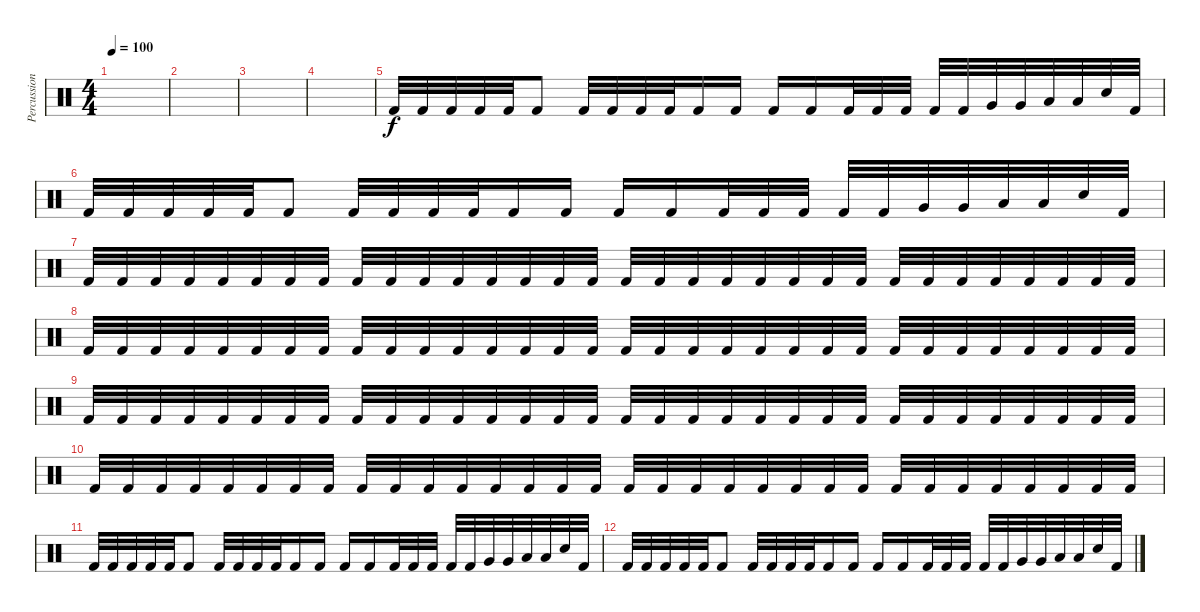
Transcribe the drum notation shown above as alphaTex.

\track ("Percussions" "Percussion") {instrument percussion}
\staff {score}
\articulation defaults
\ts (4 4)
\tempo 100
\clef neutral
\ks c
|
|
|
|
"Kick (hit) 2".32 "Kick (hit) 2".32 "Kick (hit) 2".32 "Kick (hit) 2".32 "Kick (hit) 2".32 "Kick (hit) 2".8 "Kick (hit) 2".32 "Kick (hit) 2".32 "Kick (hit) 2".32 "Kick (hit) 2".32 "Kick (hit) 2".16 "Kick (hit) 2".16 "Kick (hit) 2".16 "Kick (hit) 2".16 "Kick (hit) 2".32 "Kick (hit) 2".32 "Kick (hit) 2".32 "Kick (hit) 2".32 "Kick (hit) 2".32 "Very Low Tom (hit)".32 "Very Low Tom (hit)".32 "Low Floor Tom (hit)".32 "Low Floor Tom (hit)".32 "Snare (hit) 2".32 "Kick (hit) 2".32 |
"Kick (hit) 2".32 "Kick (hit) 2".32 "Kick (hit) 2".32 "Kick (hit) 2".32 "Kick (hit) 2".32 "Kick (hit) 2".8 "Kick (hit) 2".32 "Kick (hit) 2".32 "Kick (hit) 2".32 "Kick (hit) 2".32 "Kick (hit) 2".16 "Kick (hit) 2".16 "Kick (hit) 2".16 "Kick (hit) 2".16 "Kick (hit) 2".32 "Kick (hit) 2".32 "Kick (hit) 2".32 "Kick (hit) 2".32 "Kick (hit) 2".32 "Very Low Tom (hit)".32 "Very Low Tom (hit)".32 "Low Floor Tom (hit)".32 "Low Floor Tom (hit)".32 "Snare (hit) 2".32 "Kick (hit) 2".32 |
"Kick (hit) 2".32 "Kick (hit) 2".32 "Kick (hit) 2".32 "Kick (hit) 2".32 "Kick (hit) 2".32 "Kick (hit) 2".32 "Kick (hit) 2".32 "Kick (hit) 2".32 "Kick (hit) 2".32 "Kick (hit) 2".32 "Kick (hit) 2".32 "Kick (hit) 2".32 "Kick (hit) 2".32 "Kick (hit) 2".32 "Kick (hit) 2".32 "Kick (hit) 2".32 "Kick (hit) 2".32 "Kick (hit) 2".32 "Kick (hit) 2".32 "Kick (hit) 2".32 "Kick (hit) 2".32 "Kick (hit) 2".32 "Kick (hit) 2".32 "Kick (hit) 2".32 "Kick (hit) 2".32 "Kick (hit) 2".32 "Kick (hit) 2".32 "Kick (hit) 2".32 "Kick (hit) 2".32 "Kick (hit) 2".32 "Kick (hit) 2".32 "Kick (hit) 2".32 |
"Kick (hit) 2".32 "Kick (hit) 2".32 "Kick (hit) 2".32 "Kick (hit) 2".32 "Kick (hit) 2".32 "Kick (hit) 2".32 "Kick (hit) 2".32 "Kick (hit) 2".32 "Kick (hit) 2".32 "Kick (hit) 2".32 "Kick (hit) 2".32 "Kick (hit) 2".32 "Kick (hit) 2".32 "Kick (hit) 2".32 "Kick (hit) 2".32 "Kick (hit) 2".32 "Kick (hit) 2".32 "Kick (hit) 2".32 "Kick (hit) 2".32 "Kick (hit) 2".32 "Kick (hit) 2".32 "Kick (hit) 2".32 "Kick (hit) 2".32 "Kick (hit) 2".32 "Kick (hit) 2".32 "Kick (hit) 2".32 "Kick (hit) 2".32 "Kick (hit) 2".32 "Kick (hit) 2".32 "Kick (hit) 2".32 "Kick (hit) 2".32 "Kick (hit) 2".32 |
"Kick (hit) 2".32 "Kick (hit) 2".32 "Kick (hit) 2".32 "Kick (hit) 2".32 "Kick (hit) 2".32 "Kick (hit) 2".32 "Kick (hit) 2".32 "Kick (hit) 2".32 "Kick (hit) 2".32 "Kick (hit) 2".32 "Kick (hit) 2".32 "Kick (hit) 2".32 "Kick (hit) 2".32 "Kick (hit) 2".32 "Kick (hit) 2".32 "Kick (hit) 2".32 "Kick (hit) 2".32 "Kick (hit) 2".32 "Kick (hit) 2".32 "Kick (hit) 2".32 "Kick (hit) 2".32 "Kick (hit) 2".32 "Kick (hit) 2".32 "Kick (hit) 2".32 "Kick (hit) 2".32 "Kick (hit) 2".32 "Kick (hit) 2".32 "Kick (hit) 2".32 "Kick (hit) 2".32 "Kick (hit) 2".32 "Kick (hit) 2".32 "Kick (hit) 2".32 |
"Kick (hit) 2".32 "Kick (hit) 2".32 "Kick (hit) 2".32 "Kick (hit) 2".32 "Kick (hit) 2".32 "Kick (hit) 2".32 "Kick (hit) 2".32 "Kick (hit) 2".32 "Kick (hit) 2".32 "Kick (hit) 2".32 "Kick (hit) 2".32 "Kick (hit) 2".32 "Kick (hit) 2".32 "Kick (hit) 2".32 "Kick (hit) 2".32 "Kick (hit) 2".32 "Kick (hit) 2".32 "Kick (hit) 2".32 "Kick (hit) 2".32 "Kick (hit) 2".32 "Kick (hit) 2".32 "Kick (hit) 2".32 "Kick (hit) 2".32 "Kick (hit) 2".32 "Kick (hit) 2".32 "Kick (hit) 2".32 "Kick (hit) 2".32 "Kick (hit) 2".32 "Kick (hit) 2".32 "Kick (hit) 2".32 "Kick (hit) 2".32 "Kick (hit) 2".32 |
"Kick (hit) 2".32 "Kick (hit) 2".32 "Kick (hit) 2".32 "Kick (hit) 2".32 "Kick (hit) 2".32 "Kick (hit) 2".8 "Kick (hit) 2".32 "Kick (hit) 2".32 "Kick (hit) 2".32 "Kick (hit) 2".32 "Kick (hit) 2".16 "Kick (hit) 2".16 "Kick (hit) 2".16 "Kick (hit) 2".16 "Kick (hit) 2".32 "Kick (hit) 2".32 "Kick (hit) 2".32 "Kick (hit) 2".32 "Kick (hit) 2".32 "Very Low Tom (hit)".32 "Very Low Tom (hit)".32 "Low Floor Tom (hit)".32 "Low Floor Tom (hit)".32 "Snare (hit) 2".32 "Kick (hit) 2".32 |
"Kick (hit) 2".32 "Kick (hit) 2".32 "Kick (hit) 2".32 "Kick (hit) 2".32 "Kick (hit) 2".32 "Kick (hit) 2".8 "Kick (hit) 2".32 "Kick (hit) 2".32 "Kick (hit) 2".32 "Kick (hit) 2".32 "Kick (hit) 2".16 "Kick (hit) 2".16 "Kick (hit) 2".16 "Kick (hit) 2".16 "Kick (hit) 2".32 "Kick (hit) 2".32 "Kick (hit) 2".32 "Kick (hit) 2".32 "Kick (hit) 2".32 "Very Low Tom (hit)".32 "Very Low Tom (hit)".32 "Low Floor Tom (hit)".32 "Low Floor Tom (hit)".32 "Snare (hit) 2".32 "Kick (hit) 2".32
